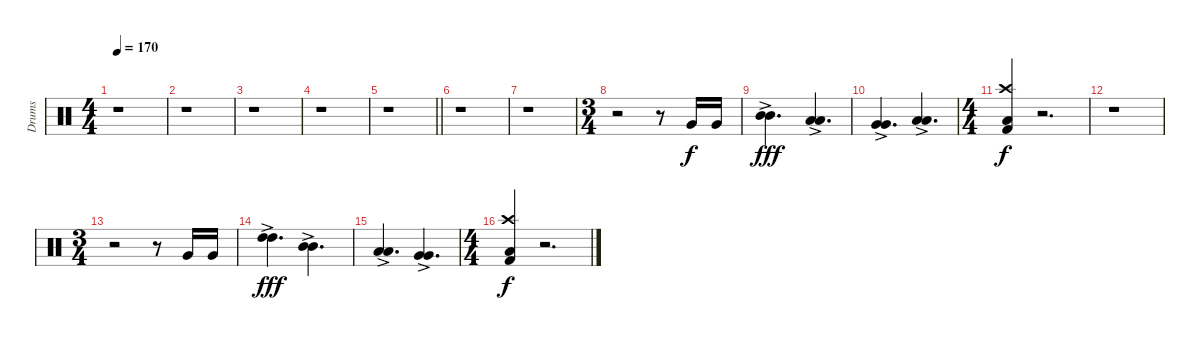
\track ("Drums" "Drums") {instrument percussion}
\staff {score}
\articulation defaults
\ts (4 4)
\tempo 170
\tempo 115
\tempo 170
\clef neutral
\ks c
r.1{dy f} |
r.1 |
r.1 |
r.1 |
\barLineRight lightlight
r.1 |
r.1 |
r.1 |
\ts (3 4)
r.2 r.8 "Very Low Tom (hit)".16 "Very Low Tom (hit)".16 |
("Mid Tom (hit)"{ac} "Mid Tom (hit)"{ac}).4{d dy fff} ("Low Tom (hit)"{ac} "Low Tom (hit)"{ac}).4{d} |
("Very Low Tom (hit)"{ac} "Very Low Tom (hit)"{ac}).4{d} ("Low Floor Tom (hit)"{ac} "Low Floor Tom (hit)"{ac}).4{d} |
\ts (4 4)
("Crash high (hit)" "Low Floor Tom (hit)" "Kick (hit) 2").4{dy f} r.2{d} |
r.1 |
\ts (3 4)
r.2 r.8 "Very Low Tom (hit)".16 "Very Low Tom (hit)".16 |
("High Tom (hit)"{ac} "High Tom (hit)"{ac}).4{d dy fff} ("Mid Tom (hit)"{ac} "Mid Tom (hit)"{ac}).4{d} |
("Low Tom (hit)"{ac} "Low Tom (hit)"{ac}).4{d} ("Very Low Tom (hit)"{ac} "Very Low Tom (hit)"{ac}).4{d} |
\ts (4 4)
("Crash high (hit)" "Low Floor Tom (hit)" "Kick (hit) 2").4{dy f} r.2{d}
